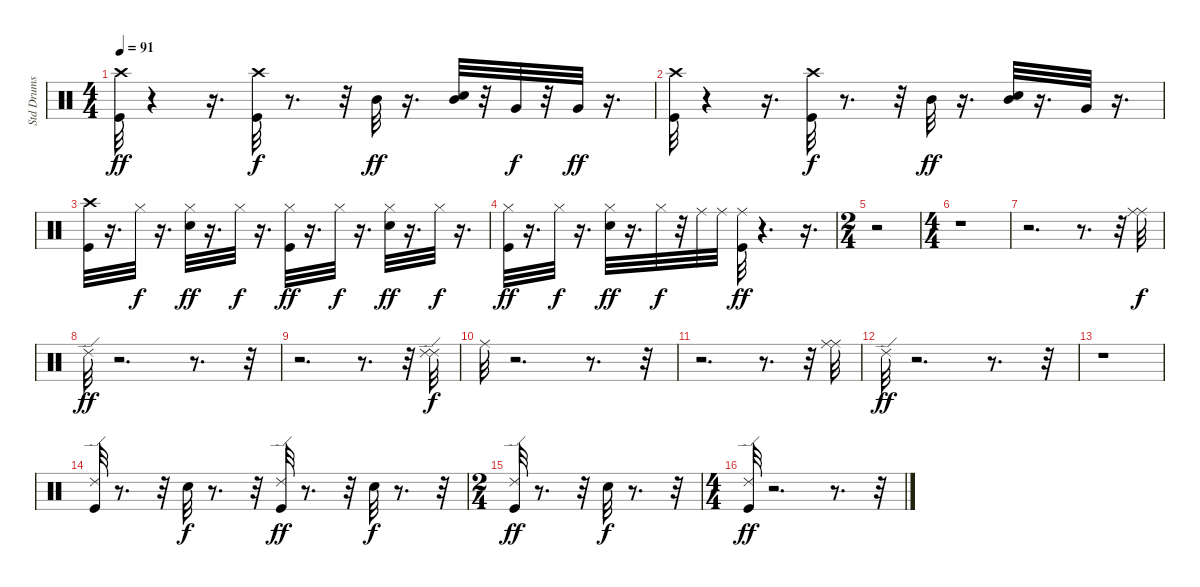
\track ("Std Drums" "Std Drums") {instrument percussion}
\staff {score}
\articulation defaults
\ts (4 4)
\tempo 91
\clef neutral
\ks c
("Kick (hit)" "Crash high (hit)").32{dy ff} r.4 r.16{d} ("Crash high (hit)" "Kick (hit)").32{dy f} r.8{d} r.32 "Mid Tom (hit)".32{dy ff} r.16{d} ("Mid Tom (hit)" "Snare (hit) 2").32 r.32 "Very Low Tom (hit)".32{dy f} r.32 "Very Low Tom (hit)".32{dy ff} r.16{d} |
("Crash high (hit)" "Kick (hit)").32 r.4 r.16{d} ("Crash high (hit)" "Kick (hit)").32{dy f} r.8{d} r.32 "Mid Tom (hit)".32{dy ff} r.16{d} ("Snare (hit) 2" "Mid Tom (hit)").32 r.16{d} "Very Low Tom (hit)".32 r.16{d} |
("Crash high (hit)" "Kick (hit)").32 r.16{d} "Hi-Hat (closed)".32{dy f} r.16{d} ("Hi-Hat (closed)" "Snare (hit) 2").32{dy ff} r.16{d} "Hi-Hat (closed)".32{dy f} r.16{d} ("Hi-Hat (closed)" "Kick (hit)").32{dy ff} r.16{d} "Hi-Hat (closed)".32{dy f} r.16{d} ("Hi-Hat (closed)" "Snare (hit) 2").32{dy ff} r.16{d} "Hi-Hat (closed)".32{dy f} r.16{d} |
("Hi-Hat (closed)" "Kick (hit)").32{dy ff} r.16{d} "Hi-Hat (closed)".32{dy f} r.16{d} ("Hi-Hat (closed)" "Snare (hit) 2").32{dy ff} r.16{d} "Hi-Hat (closed)".32{dy f} r.32 "Ride (middle)".32 "Ride (middle)".32 ("Ride (middle)" "Kick (hit)").32{dy ff} r.4{d} r.16{d} |
\ts (2 4)
r.2 |
\ts (4 4)
r.1 |
r.2{d} r.8{d} r.32 ("Ride (middle)" "Ride (middle)").32{dy f} |
"Ride (edge) 2".32{dy ff} r.2{d} r.8{d} r.32 |
r.2{d} r.8{d} r.32 ("Ride (edge) 2" "Ride (edge) 2").32{dy f} |
"Ride (middle)".32 r.2{d} r.8{d} r.32 |
r.2{d} r.8{d} r.32 ("Ride (middle)" "Ride (middle)").32 |
"Ride (edge) 2".32{dy ff} r.2{d} r.8{d} r.32 |
r.1 |
("Kick (hit)" "Ride (edge) 2").32 r.8{d} r.32 "Snare (hit) 2".32{dy f} r.8{d} r.32 ("Ride (edge) 2" "Kick (hit)").32{dy ff} r.8{d} r.32 "Snare (hit) 2".32{dy f} r.8{d} r.32 |
\ts (2 4)
("Ride (edge) 2" "Kick (hit)").32{dy ff} r.8{d} r.32 "Snare (hit) 2".32{dy f} r.8{d} r.32 |
\ts (4 4)
("Kick (hit)" "Ride (edge) 2").32{dy ff} r.2{d} r.8{d} r.32
